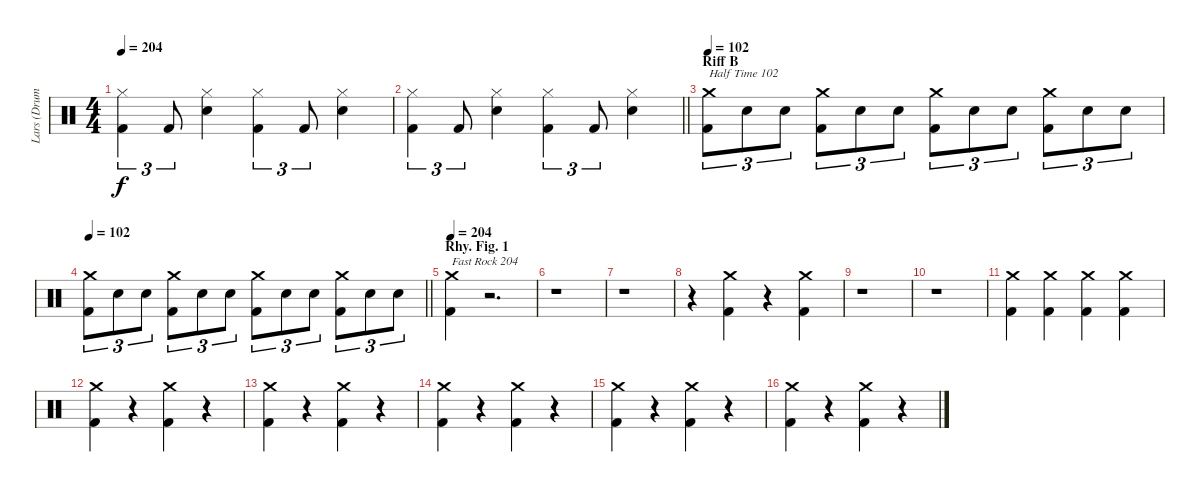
\track ("Lars (Drums)" "Lars (Drum") {instrument percussion}
\staff {score}
\articulation defaults
\ts (4 4)
\tempo 204
\clef neutral
\ks c
("Hi-Hat (closed)" "Kick (hit) 2").4{tu (3 2) dy f} "Kick (hit) 2".8{tu (3 2)} ("Snare (hit) 2" "Hi-Hat (closed)").4 ("Hi-Hat (closed)" "Kick (hit) 2").4{tu (3 2)} "Kick (hit) 2".8{tu (3 2)} ("Snare (hit) 2" "Hi-Hat (closed)").4 |
\barLineRight lightlight
("Hi-Hat (closed)" "Kick (hit) 2").4{tu (3 2)} "Kick (hit) 2".8{tu (3 2)} ("Snare (hit) 2" "Hi-Hat (closed)").4 ("Hi-Hat (closed)" "Kick (hit) 2").4{tu (3 2)} "Kick (hit) 2".8{tu (3 2)} ("Hi-Hat (closed)" "Snare (hit) 2").4 |
\section ("" "Riff B")
\tempo 102
("Kick (hit) 2" "Crash medium (hit)").8{tu (3 2) txt "Half Time 102"} "Snare (hit) 2".8{tu (3 2)} "Snare (hit) 2".8{tu (3 2)} ("Kick (hit) 2" "Crash medium (hit)").8{tu (3 2)} "Snare (hit) 2".8{tu (3 2)} "Snare (hit) 2".8{tu (3 2)} ("Kick (hit) 2" "Crash medium (hit)").8{tu (3 2)} "Snare (hit) 2".8{tu (3 2)} "Snare (hit) 2".8{tu (3 2)} ("Kick (hit) 2" "Crash medium (hit)").8{tu (3 2)} "Snare (hit) 2".8{tu (3 2)} "Snare (hit) 2".8{tu (3 2)} |
\tempo 102
\barLineRight lightlight
("Kick (hit) 2" "Crash medium (hit)").8{tu (3 2)} "Snare (hit) 2".8{tu (3 2)} "Snare (hit) 2".8{tu (3 2)} ("Kick (hit) 2" "Crash medium (hit)").8{tu (3 2)} "Snare (hit) 2".8{tu (3 2)} "Snare (hit) 2".8{tu (3 2)} ("Kick (hit) 2" "Crash medium (hit)").8{tu (3 2)} "Snare (hit) 2".8{tu (3 2)} "Snare (hit) 2".8{tu (3 2)} ("Kick (hit) 2" "Crash medium (hit)").8{tu (3 2)} "Snare (hit) 2".8{tu (3 2)} "Snare (hit) 2".8{tu (3 2)} |
\section ("" "Rhy. Fig. 1")
\tempo 204
("Kick (hit) 2" "Crash medium (hit)").4{txt "Fast Rock 204"} r.2{d} |
r.1 |
r.1 |
r.4 ("Kick (hit) 2" "Crash medium (hit)").4 r.4 ("Kick (hit) 2" "Crash medium (hit)").4 |
r.1 |
r.1 |
("Kick (hit) 2" "Crash medium (hit)").4 ("Kick (hit) 2" "Crash medium (hit)").4 ("Kick (hit) 2" "Crash medium (hit)").4 ("Kick (hit) 2" "Crash medium (hit)").4 |
("Crash medium (hit)" "Kick (hit) 2").4 r.4 ("Crash medium (hit)" "Kick (hit) 2").4 r.4 |
("Kick (hit) 2" "Crash medium (hit)").4 r.4 ("Kick (hit) 2" "Crash medium (hit)").4 r.4 |
("Kick (hit) 2" "Crash medium (hit)").4 r.4 ("Kick (hit) 2" "Crash medium (hit)").4 r.4 |
("Kick (hit) 2" "Crash medium (hit)").4 r.4 ("Kick (hit) 2" "Crash medium (hit)").4 r.4 |
("Kick (hit) 2" "Crash medium (hit)").4 r.4 ("Kick (hit) 2" "Crash medium (hit)").4 r.4
